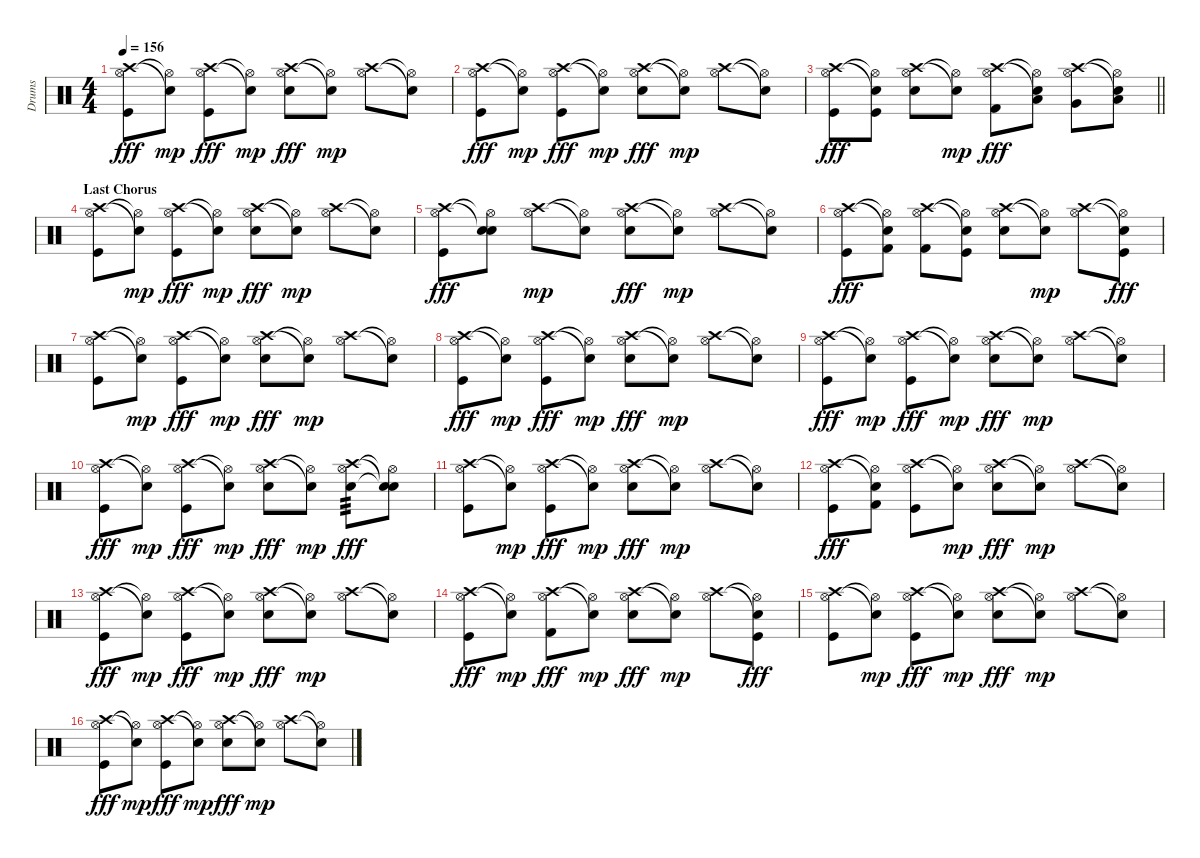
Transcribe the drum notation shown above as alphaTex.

\track ("Drums" "Drums") {instrument percussion}
\staff {score}
\articulation defaults
\ts (4 4)
\tempo 156
\clef neutral
\ks c
("Crash high (hit)" "Hi-Hat (open)" "Kick (hit)").8{dy fff} ("Snare (hit)"{t} "Hi-Hat (open)"{t}).8{dy mp} ("Crash high (hit)" "Hi-Hat (open)" "Kick (hit)").8{dy fff} ("Snare (hit)"{t} "Hi-Hat (open)"{t}).8{dy mp} ("Crash high (hit)" "Hi-Hat (open)" "Snare (hit) 2").8{dy fff} ("Snare (hit)"{t} "Hi-Hat (open)"{t}).8{dy mp} ("Crash high (hit)" "Hi-Hat (open)").8 ("Snare (hit)"{t} "Hi-Hat (open)"{t}).8 |
("Crash high (hit)" "Hi-Hat (open)" "Kick (hit)").8{dy fff} ("Snare (hit)"{t} "Hi-Hat (open)"{t}).8{dy mp} ("Crash high (hit)" "Hi-Hat (open)" "Kick (hit)").8{dy fff} ("Snare (hit)"{t} "Hi-Hat (open)"{t}).8{dy mp} ("Crash high (hit)" "Hi-Hat (open)" "Snare (hit) 2").8{dy fff} ("Snare (hit)"{t} "Hi-Hat (open)"{t}).8{dy mp} ("Crash high (hit)" "Hi-Hat (open)").8 ("Snare (hit)"{t} "Hi-Hat (open)"{t}).8 |
\barLineRight lightlight
("Crash high (hit)" "Hi-Hat (open)" "Kick (hit)").8{dy fff} ("Snare (hit)"{t} "Hi-Hat (open)"{t} "Kick (hit)").8 ("Crash high (hit)" "Hi-Hat (open)" "Snare (hit) 2").8 ("Snare (hit)"{t} "Hi-Hat (open)"{t}).8{dy mp} ("Crash high (hit)" "Hi-Hat (open)" "Kick (hit) 2").8{dy fff} ("Snare (hit)"{t} "Hi-Hat (open)"{t} "Low Tom (hit)").8 ("Crash high (hit)" "Hi-Hat (open)" "Very Low Tom (hit)").8 ("Snare (hit)"{t} "Hi-Hat (open)"{t} "Low Floor Tom (hit)").8 |
\section ("" "Last Chorus")
("Crash high (hit)" "Hi-Hat (open)" "Kick (hit)").8 ("Snare (hit)"{t} "Hi-Hat (open)"{t}).8{dy mp} ("Crash high (hit)" "Hi-Hat (open)" "Kick (hit)").8{dy fff} ("Snare (hit)"{t} "Hi-Hat (open)"{t}).8{dy mp} ("Crash high (hit)" "Hi-Hat (open)" "Snare (hit) 2").8{dy fff} ("Snare (hit)"{t} "Hi-Hat (open)"{t}).8{dy mp} ("Crash high (hit)" "Hi-Hat (open)").8 ("Snare (hit)"{t} "Hi-Hat (open)"{t}).8 |
("Crash high (hit)" "Hi-Hat (open)" "Kick (hit)").8{dy fff} ("Snare (hit)"{t} "Hi-Hat (open)"{t} "Snare (hit) 2").8 ("Crash high (hit)" "Hi-Hat (open)").8{dy mp} ("Snare (hit)"{t} "Hi-Hat (open)"{t}).8 ("Crash high (hit)" "Hi-Hat (open)" "Snare (hit) 2").8{dy fff} ("Snare (hit)"{t} "Hi-Hat (open)"{t}).8{dy mp} ("Crash high (hit)" "Hi-Hat (open)").8 ("Snare (hit)"{t} "Hi-Hat (open)"{t}).8 |
("Crash high (hit)" "Hi-Hat (open)" "Kick (hit)").8{dy fff} ("Snare (hit)"{t} "Hi-Hat (open)"{t} "Kick (hit) 2").8 ("Crash high (hit)" "Hi-Hat (open)" "Kick (hit) 2").8 ("Snare (hit)"{t} "Hi-Hat (open)"{t} "Kick (hit)").8 ("Crash high (hit)" "Hi-Hat (open)" "Snare (hit) 2").8 ("Snare (hit)"{t} "Hi-Hat (open)"{t}).8{dy mp} ("Crash high (hit)" "Hi-Hat (open)").8 ("Snare (hit)"{t} "Hi-Hat (open)"{t} "Kick (hit)").8{dy fff} |
("Crash high (hit)" "Hi-Hat (open)" "Kick (hit)").8 ("Snare (hit)"{t} "Hi-Hat (open)"{t}).8{dy mp} ("Crash high (hit)" "Hi-Hat (open)" "Kick (hit)").8{dy fff} ("Snare (hit)"{t} "Hi-Hat (open)"{t}).8{dy mp} ("Crash high (hit)" "Hi-Hat (open)" "Snare (hit) 2").8{dy fff} ("Snare (hit)"{t} "Hi-Hat (open)"{t}).8{dy mp} ("Crash high (hit)" "Hi-Hat (open)").8 ("Snare (hit)"{t} "Hi-Hat (open)"{t}).8 |
("Crash high (hit)" "Hi-Hat (open)" "Kick (hit)").8{dy fff} ("Snare (hit)"{t} "Hi-Hat (open)"{t}).8{dy mp} ("Crash high (hit)" "Hi-Hat (open)" "Kick (hit)").8{dy fff} ("Snare (hit)"{t} "Hi-Hat (open)"{t}).8{dy mp} ("Crash high (hit)" "Hi-Hat (open)" "Snare (hit) 2").8{dy fff} ("Snare (hit)"{t} "Hi-Hat (open)"{t}).8{dy mp} ("Crash high (hit)" "Hi-Hat (open)").8 ("Snare (hit)"{t} "Hi-Hat (open)"{t}).8 |
("Crash high (hit)" "Hi-Hat (open)" "Kick (hit)").8{dy fff} ("Snare (hit)"{t} "Hi-Hat (open)"{t}).8{dy mp} ("Crash high (hit)" "Hi-Hat (open)" "Kick (hit)").8{dy fff} ("Snare (hit)"{t} "Hi-Hat (open)"{t}).8{dy mp} ("Crash high (hit)" "Hi-Hat (open)" "Snare (hit) 2").8{dy fff} ("Snare (hit)"{t} "Hi-Hat (open)"{t}).8{dy mp} ("Crash high (hit)" "Hi-Hat (open)").8 ("Snare (hit)"{t} "Hi-Hat (open)"{t}).8 |
("Crash high (hit)" "Hi-Hat (open)" "Kick (hit)").8{dy fff} ("Snare (hit)"{t} "Hi-Hat (open)"{t}).8{dy mp} ("Crash high (hit)" "Hi-Hat (open)" "Kick (hit)").8{dy fff} ("Snare (hit)"{t} "Hi-Hat (open)"{t}).8{dy mp} ("Crash high (hit)" "Hi-Hat (open)" "Snare (hit) 2").8{dy fff} ("Snare (hit)"{t} "Hi-Hat (open)"{t}).8{dy mp} ("Crash high (hit)" "Hi-Hat (open)" "Snare (hit) 2").8{tp 3 dy fff} ("Snare (hit)"{t} "Hi-Hat (open)"{t} "Snare (hit)"{t}).8 |
("Crash high (hit)" "Hi-Hat (open)" "Kick (hit)").8 ("Snare (hit)"{t} "Hi-Hat (open)"{t}).8{dy mp} ("Crash high (hit)" "Hi-Hat (open)" "Kick (hit)").8{dy fff} ("Snare (hit)"{t} "Hi-Hat (open)"{t}).8{dy mp} ("Crash high (hit)" "Hi-Hat (open)" "Snare (hit) 2").8{dy fff} ("Snare (hit)"{t} "Hi-Hat (open)"{t}).8{dy mp} ("Crash high (hit)" "Hi-Hat (open)").8 ("Snare (hit)"{t} "Hi-Hat (open)"{t}).8 |
("Crash high (hit)" "Hi-Hat (open)" "Kick (hit)").8{dy fff} ("Snare (hit)"{t} "Hi-Hat (open)"{t} "Kick (hit) 2").8 ("Crash high (hit)" "Hi-Hat (open)" "Kick (hit)").8 ("Snare (hit)"{t} "Hi-Hat (open)"{t}).8{dy mp} ("Crash high (hit)" "Hi-Hat (open)" "Snare (hit) 2").8{dy fff} ("Snare (hit)"{t} "Hi-Hat (open)"{t}).8{dy mp} ("Crash high (hit)" "Hi-Hat (open)").8 ("Snare (hit)"{t} "Hi-Hat (open)"{t}).8 |
("Crash high (hit)" "Hi-Hat (open)" "Kick (hit)").8{dy fff} ("Snare (hit)"{t} "Hi-Hat (open)"{t}).8{dy mp} ("Crash high (hit)" "Hi-Hat (open)" "Kick (hit)").8{dy fff} ("Snare (hit)"{t} "Hi-Hat (open)"{t}).8{dy mp} ("Crash high (hit)" "Hi-Hat (open)" "Snare (hit) 2").8{dy fff} ("Snare (hit)"{t} "Hi-Hat (open)"{t}).8{dy mp} ("Crash high (hit)" "Hi-Hat (open)").8 ("Snare (hit)"{t} "Hi-Hat (open)"{t}).8 |
("Crash high (hit)" "Hi-Hat (open)" "Kick (hit)").8{dy fff} ("Snare (hit)"{t} "Hi-Hat (open)"{t}).8{dy mp} ("Crash high (hit)" "Hi-Hat (open)" "Kick (hit) 2").8{dy fff} ("Snare (hit)"{t} "Hi-Hat (open)"{t}).8{dy mp} ("Crash high (hit)" "Hi-Hat (open)" "Snare (hit) 2").8{dy fff} ("Snare (hit)"{t} "Hi-Hat (open)"{t}).8{dy mp} ("Crash high (hit)" "Hi-Hat (open)").8 ("Snare (hit)"{t} "Hi-Hat (open)"{t} "Kick (hit)").8{dy fff} |
("Crash high (hit)" "Hi-Hat (open)" "Kick (hit)").8 ("Snare (hit)"{t} "Hi-Hat (open)"{t}).8{dy mp} ("Crash high (hit)" "Hi-Hat (open)" "Kick (hit)").8{dy fff} ("Snare (hit)"{t} "Hi-Hat (open)"{t}).8{dy mp} ("Crash high (hit)" "Hi-Hat (open)" "Snare (hit) 2").8{dy fff} ("Snare (hit)"{t} "Hi-Hat (open)"{t}).8{dy mp} ("Crash high (hit)" "Hi-Hat (open)").8 ("Snare (hit)"{t} "Hi-Hat (open)"{t}).8 |
("Crash high (hit)" "Hi-Hat (open)" "Kick (hit)").8{dy fff} ("Snare (hit)"{t} "Hi-Hat (open)"{t}).8{dy mp} ("Crash high (hit)" "Hi-Hat (open)" "Kick (hit)").8{dy fff} ("Snare (hit)"{t} "Hi-Hat (open)"{t}).8{dy mp} ("Crash high (hit)" "Hi-Hat (open)" "Snare (hit) 2").8{dy fff} ("Snare (hit)"{t} "Hi-Hat (open)"{t}).8{dy mp} ("Crash high (hit)" "Hi-Hat (open)").8 ("Snare (hit)"{t} "Hi-Hat (open)"{t}).8
